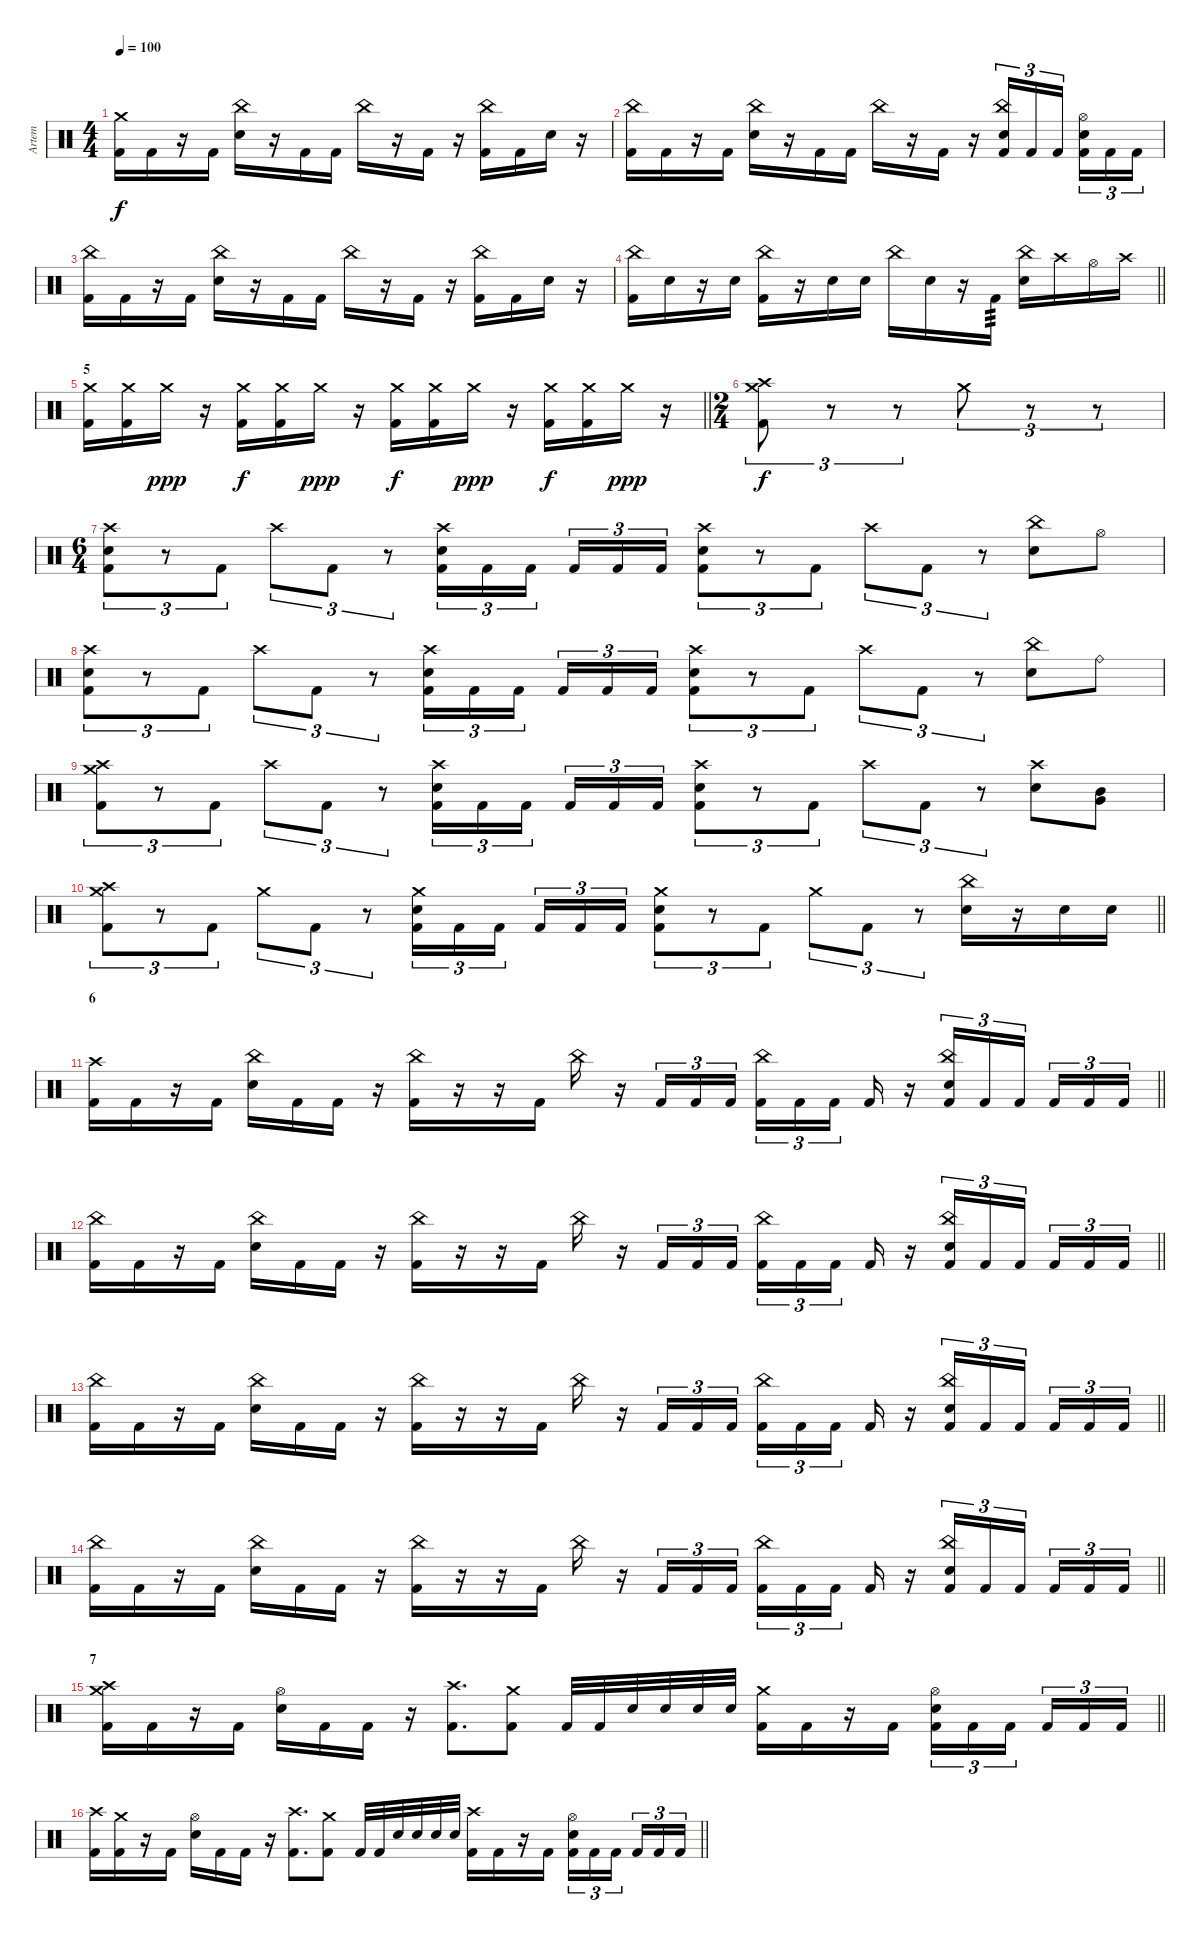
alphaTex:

\track ("Artem" "Artem") {instrument percussion}
\staff {score}
\articulation defaults
\ts (4 4)
\tempo 100
\clef neutral
\ks c
("Crash medium (hit)" "Kick (hit) 2").16{dy f} "Kick (hit) 2".16 r.16 "Kick (hit) 2".16 ("China (hit)" "Electric Snare (hit)").16 r.16 "Kick (hit) 2".16 "Kick (hit) 2".16 "China (hit)".16 r.16 "Kick (hit) 2".16 r.16 ("China (hit)" "Kick (hit) 2").16 "Kick (hit) 2".16 "Electric Snare (hit)".16 r.16 |
("China (hit)" "Kick (hit) 2").16 "Kick (hit) 2".16 r.16 "Kick (hit) 2".16 ("China (hit)" "Electric Snare (hit)").16 r.16 "Kick (hit) 2".16 "Kick (hit) 2".16 "China (hit)".16 r.16 "Kick (hit) 2".16 r.16 ("China (hit)" "Electric Snare (hit)" "Kick (hit) 2").16{tu (3 2)} "Kick (hit) 2".16{tu (3 2)} "Kick (hit) 2".16{tu (3 2) beam splitsecondary} ("Electric Snare (hit)" "Hi-Hat (open)" "Kick (hit) 2").16{tu (3 2)} "Kick (hit) 2".16{tu (3 2)} "Kick (hit) 2".16{tu (3 2)} |
("China (hit)" "Kick (hit) 2").16 "Kick (hit) 2".16 r.16 "Kick (hit) 2".16 ("China (hit)" "Electric Snare (hit)").16 r.16 "Kick (hit) 2".16 "Kick (hit) 2".16 "China (hit)".16 r.16 "Kick (hit) 2".16 r.16 ("China (hit)" "Kick (hit) 2").16 "Kick (hit) 2".16 "Electric Snare (hit)".16 r.16 |
\barLineRight lightlight
("China (hit)" "Kick (hit) 2").16 "Electric Snare (hit)".16 r.16 "Electric Snare (hit)".16 ("China (hit)" "Kick (hit) 2").16 r.16 "Electric Snare (hit)".16 "Electric Snare (hit)".16 "China (hit)".16 "Electric Snare (hit)".16 r.16 "Kick (hit) 2".16{tp 3} ("China (hit)" "Electric Snare (hit)").16 "Crash high (hit)".16 "Hi-Hat (open)".16 "Crash high (hit)".16 |
\section ("" "5")
\barLineRight lightlight
("Kick (hit) 2" "Crash medium (hit)").16 ("Kick (hit) 2" "Crash medium (hit)").16 "Crash medium (hit)".16{dy ppp} r.16 ("Kick (hit) 2" "Crash medium (hit)").16{dy f} ("Kick (hit) 2" "Crash medium (hit)").16 "Crash medium (hit)".16{dy ppp} r.16 ("Kick (hit) 2" "Crash medium (hit)").16{dy f} ("Kick (hit) 2" "Crash medium (hit)").16 "Crash medium (hit)".16{dy ppp} r.16 ("Kick (hit) 2" "Crash medium (hit)").16{dy f} ("Kick (hit) 2" "Crash medium (hit)").16 "Crash medium (hit)".16{dy ppp} r.16 |
\ts (2 4)
("Kick (hit) 2" "Crash medium (hit)" "Crash high (hit)").8{tu (3 2) dy f} r.8{tu (3 2)} r.8{tu (3 2)} "Crash medium (hit)".8{tu (3 2)} r.8{tu (3 2)} r.8{tu (3 2)} |
\ts (6 4)
("Crash high (hit)" "Kick (hit) 2" "Electric Snare (hit)").8{tu (3 2)} r.8{tu (3 2)} "Kick (hit) 2".8{tu (3 2)} "Crash high (hit)".8{tu (3 2)} "Kick (hit) 2".8{tu (3 2)} r.8{tu (3 2)} ("Crash high (hit)" "Kick (hit) 2" "Electric Snare (hit)").16{tu (3 2)} "Kick (hit) 2".16{tu (3 2)} "Kick (hit) 2".16{tu (3 2) beam splitsecondary} "Kick (hit) 2".16{tu (3 2)} "Kick (hit) 2".16{tu (3 2)} "Kick (hit) 2".16{tu (3 2)} ("Crash high (hit)" "Kick (hit) 2" "Electric Snare (hit)").8{tu (3 2)} r.8{tu (3 2)} "Kick (hit) 2".8{tu (3 2)} "Crash high (hit)".8{tu (3 2)} "Kick (hit) 2".8{tu (3 2)} r.8{tu (3 2)} ("China (hit)" "Electric Snare (hit)").8 "Hi-Hat (open)".8 |
("Crash high (hit)" "Kick (hit) 2" "Electric Snare (hit)").8{tu (3 2)} r.8{tu (3 2)} "Kick (hit) 2".8{tu (3 2)} "Crash high (hit)".8{tu (3 2)} "Kick (hit) 2".8{tu (3 2)} r.8{tu (3 2)} ("Crash high (hit)" "Kick (hit) 2" "Electric Snare (hit)").16{tu (3 2)} "Kick (hit) 2".16{tu (3 2)} "Kick (hit) 2".16{tu (3 2) beam splitsecondary} "Kick (hit) 2".16{tu (3 2)} "Kick (hit) 2".16{tu (3 2)} "Kick (hit) 2".16{tu (3 2)} ("Crash high (hit)" "Kick (hit) 2" "Electric Snare (hit)").8{tu (3 2)} r.8{tu (3 2)} "Kick (hit) 2".8{tu (3 2)} "Crash high (hit)".8{tu (3 2)} "Kick (hit) 2".8{tu (3 2)} r.8{tu (3 2)} ("China (hit)" "Electric Snare (hit)").8 "Ride (bell)".8 |
("Crash high (hit)" "Kick (hit) 2" "Crash medium (hit)").8{tu (3 2)} r.8{tu (3 2)} "Kick (hit) 2".8{tu (3 2)} "Crash high (hit)".8{tu (3 2)} "Kick (hit) 2".8{tu (3 2)} r.8{tu (3 2)} ("Crash high (hit)" "Kick (hit) 2" "Electric Snare (hit)").16{tu (3 2)} "Kick (hit) 2".16{tu (3 2)} "Kick (hit) 2".16{tu (3 2) beam splitsecondary} "Kick (hit) 2".16{tu (3 2)} "Kick (hit) 2".16{tu (3 2)} "Kick (hit) 2".16{tu (3 2)} ("Crash high (hit)" "Kick (hit) 2" "Electric Snare (hit)").8{tu (3 2)} r.8{tu (3 2)} "Kick (hit) 2".8{tu (3 2)} "Crash high (hit)".8{tu (3 2)} "Kick (hit) 2".8{tu (3 2)} r.8{tu (3 2)} ("Crash high (hit)" "Electric Snare (hit)").8 ("Mid Tom (hit)" "Very Low Tom (hit)").8 |
\barLineRight lightlight
("Crash medium (hit)" "Kick (hit) 2" "Crash high (hit)").8{tu (3 2)} r.8{tu (3 2)} "Kick (hit) 2".8{tu (3 2)} "Crash medium (hit)".8{tu (3 2)} "Kick (hit) 2".8{tu (3 2)} r.8{tu (3 2)} ("Crash medium (hit)" "Kick (hit) 2" "Electric Snare (hit)").16{tu (3 2)} "Kick (hit) 2".16{tu (3 2)} "Kick (hit) 2".16{tu (3 2) beam splitsecondary} "Kick (hit) 2".16{tu (3 2)} "Kick (hit) 2".16{tu (3 2)} "Kick (hit) 2".16{tu (3 2)} ("Crash medium (hit)" "Kick (hit) 2" "Electric Snare (hit)").8{tu (3 2)} r.8{tu (3 2)} "Kick (hit) 2".8{tu (3 2)} "Crash medium (hit)".8{tu (3 2)} "Kick (hit) 2".8{tu (3 2)} r.8{tu (3 2)} ("China (hit)" "Electric Snare (hit)").16 r.16 "Electric Snare (hit)".16 "Electric Snare (hit)".16 |
\section ("" "6")
\barLineRight lightlight
("Crash high (hit)" "Kick (hit) 2").16 "Kick (hit) 2".16 r.16 "Kick (hit) 2".16 ("China (hit)" "Electric Snare (hit)").16 "Kick (hit) 2".16 "Kick (hit) 2".16 r.16 ("China (hit)" "Kick (hit) 2").16 r.16 r.16 "Kick (hit) 2".16 "China (hit)".16 r.16 "Kick (hit) 2".16{tu (3 2)} "Kick (hit) 2".16{tu (3 2)} "Kick (hit) 2".16{tu (3 2) beam splitsecondary} ("China (hit)" "Kick (hit) 2").16{tu (3 2)} "Kick (hit) 2".16{tu (3 2)} "Kick (hit) 2".16{tu (3 2) beam splitsecondary} "Kick (hit) 2".16 r.16 ("China (hit)" "Kick (hit) 2" "Electric Snare (hit)").16{tu (3 2)} "Kick (hit) 2".16{tu (3 2)} "Kick (hit) 2".16{tu (3 2) beam splitsecondary} "Kick (hit) 2".16{tu (3 2)} "Kick (hit) 2".16{tu (3 2)} "Kick (hit) 2".16{tu (3 2)} |
\barLineRight lightlight
("China (hit)" "Kick (hit) 2").16 "Kick (hit) 2".16 r.16 "Kick (hit) 2".16 ("China (hit)" "Electric Snare (hit)").16 "Kick (hit) 2".16 "Kick (hit) 2".16 r.16 ("China (hit)" "Kick (hit) 2").16 r.16 r.16 "Kick (hit) 2".16 "China (hit)".16 r.16 "Kick (hit) 2".16{tu (3 2)} "Kick (hit) 2".16{tu (3 2)} "Kick (hit) 2".16{tu (3 2) beam splitsecondary} ("China (hit)" "Kick (hit) 2").16{tu (3 2)} "Kick (hit) 2".16{tu (3 2)} "Kick (hit) 2".16{tu (3 2) beam splitsecondary} "Kick (hit) 2".16 r.16 ("China (hit)" "Kick (hit) 2" "Electric Snare (hit)").16{tu (3 2)} "Kick (hit) 2".16{tu (3 2)} "Kick (hit) 2".16{tu (3 2) beam splitsecondary} "Kick (hit) 2".16{tu (3 2)} "Kick (hit) 2".16{tu (3 2)} "Kick (hit) 2".16{tu (3 2)} |
\barLineRight lightlight
("China (hit)" "Kick (hit) 2").16 "Kick (hit) 2".16 r.16 "Kick (hit) 2".16 ("China (hit)" "Electric Snare (hit)").16 "Kick (hit) 2".16 "Kick (hit) 2".16 r.16 ("China (hit)" "Kick (hit) 2").16 r.16 r.16 "Kick (hit) 2".16 "China (hit)".16 r.16 "Kick (hit) 2".16{tu (3 2)} "Kick (hit) 2".16{tu (3 2)} "Kick (hit) 2".16{tu (3 2) beam splitsecondary} ("China (hit)" "Kick (hit) 2").16{tu (3 2)} "Kick (hit) 2".16{tu (3 2)} "Kick (hit) 2".16{tu (3 2) beam splitsecondary} "Kick (hit) 2".16 r.16 ("China (hit)" "Kick (hit) 2" "Electric Snare (hit)").16{tu (3 2)} "Kick (hit) 2".16{tu (3 2)} "Kick (hit) 2".16{tu (3 2) beam splitsecondary} "Kick (hit) 2".16{tu (3 2)} "Kick (hit) 2".16{tu (3 2)} "Kick (hit) 2".16{tu (3 2)} |
\barLineRight lightlight
("China (hit)" "Kick (hit) 2").16 "Kick (hit) 2".16 r.16 "Kick (hit) 2".16 ("China (hit)" "Electric Snare (hit)").16 "Kick (hit) 2".16 "Kick (hit) 2".16 r.16 ("China (hit)" "Kick (hit) 2").16 r.16 r.16 "Kick (hit) 2".16 "China (hit)".16 r.16 "Kick (hit) 2".16{tu (3 2)} "Kick (hit) 2".16{tu (3 2)} "Kick (hit) 2".16{tu (3 2) beam splitsecondary} ("China (hit)" "Kick (hit) 2").16{tu (3 2)} "Kick (hit) 2".16{tu (3 2)} "Kick (hit) 2".16{tu (3 2) beam splitsecondary} "Kick (hit) 2".16 r.16 ("China (hit)" "Kick (hit) 2" "Electric Snare (hit)").16{tu (3 2)} "Kick (hit) 2".16{tu (3 2)} "Kick (hit) 2".16{tu (3 2) beam splitsecondary} "Kick (hit) 2".16{tu (3 2)} "Kick (hit) 2".16{tu (3 2)} "Kick (hit) 2".16{tu (3 2)} |
\section ("" "7")
\barLineRight lightlight
("Crash medium (hit)" "Kick (hit) 2" "Crash high (hit)").16 "Kick (hit) 2".16 r.16 "Kick (hit) 2".16 ("Hi-Hat (open)" "Electric Snare (hit)").16 "Kick (hit) 2".16 "Kick (hit) 2".16 r.16 ("Crash high (hit)" "Kick (hit) 2").8{d} ("Crash medium (hit)" "Kick (hit) 2").8 "Kick (hit) 2".32 "Kick (hit) 2".32 "Snare (hit) 2".32 "Snare (hit) 2".32 "Snare (hit) 2".32 "Snare (hit) 2".32 ("Crash medium (hit)" "Kick (hit) 2").16 "Kick (hit) 2".16 r.16 "Kick (hit) 2".16{beam splitsecondary} ("Hi-Hat (open)" "Kick (hit) 2" "Electric Snare (hit)").16{tu (3 2)} "Kick (hit) 2".16{tu (3 2)} "Kick (hit) 2".16{tu (3 2) beam splitsecondary} "Kick (hit) 2".16{tu (3 2)} "Kick (hit) 2".16{tu (3 2)} "Kick (hit) 2".16{tu (3 2)} |
\barLineRight lightlight
("Crash high (hit)" "Kick (hit) 2").16 ("Crash medium (hit)" "Kick (hit) 2").16 r.16 "Kick (hit) 2".16 ("Hi-Hat (open)" "Electric Snare (hit)").16 "Kick (hit) 2".16 "Kick (hit) 2".16 r.16 ("Crash high (hit)" "Kick (hit) 2").8{d} ("Crash medium (hit)" "Kick (hit) 2").8 "Kick (hit) 2".32 "Kick (hit) 2".32 "Snare (hit) 2".32 "Snare (hit) 2".32 "Snare (hit) 2".32 "Snare (hit) 2".32 ("Crash high (hit)" "Kick (hit) 2").16 "Kick (hit) 2".16 r.16 "Kick (hit) 2".16{beam splitsecondary} ("Hi-Hat (open)" "Kick (hit) 2" "Electric Snare (hit)").16{tu (3 2)} "Kick (hit) 2".16{tu (3 2)} "Kick (hit) 2".16{tu (3 2) beam splitsecondary} "Kick (hit) 2".16{tu (3 2)} "Kick (hit) 2".16{tu (3 2)} "Kick (hit) 2".16{tu (3 2)}
